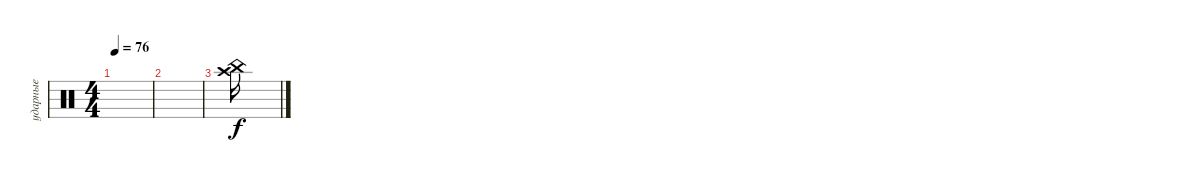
\track ("ударные" "ударные") {instrument percussion}
\staff {score}
\articulation defaults
\ts (4 4)
\tempo 76
\clef neutral
\ks c
|
|
("Crash high (hit)" "China (hit)").16{volume 4}
